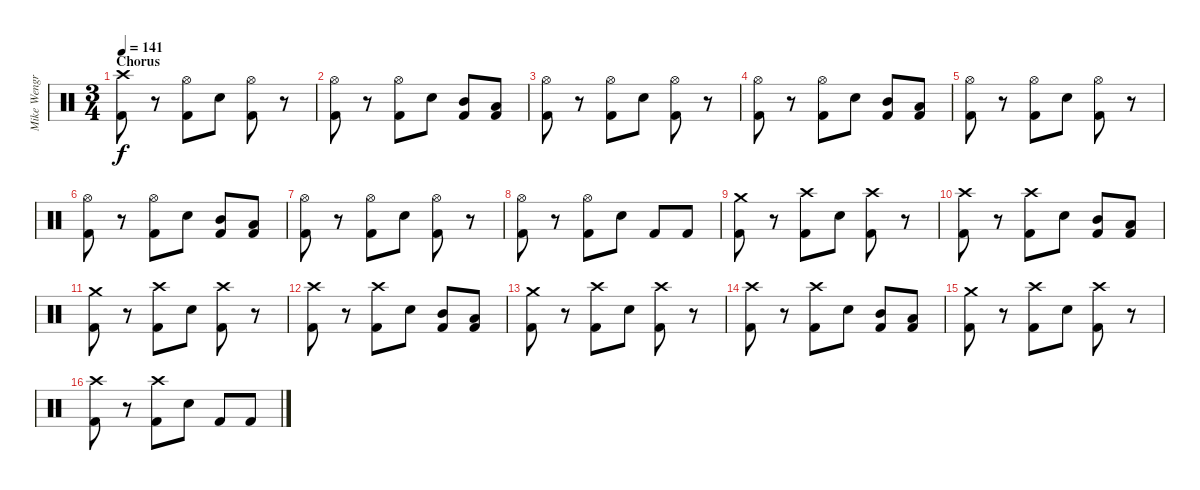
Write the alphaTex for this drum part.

\track ("Mike Wengren (Drums)" "Mike Wengr") {instrument percussion}
\staff {score}
\articulation defaults
\ts (3 4)
\section ("" "Chorus")
\tempo 141
\clef neutral
\ks c
("Crash high (hit)" "Kick (hit) 2").8{dy f} r.8 ("Hi-Hat (open)" "Kick (hit) 2").8 "Electric Snare (hit)".8 ("Hi-Hat (open)" "Kick (hit) 2").8 r.8 |
("Hi-Hat (open)" "Kick (hit) 2").8 r.8 ("Hi-Hat (open)" "Kick (hit) 2").8 "Electric Snare (hit)".8 ("Mid Tom (hit)" "Kick (hit) 2").8 ("Low Tom (hit)" "Kick (hit) 2").8 |
("Hi-Hat (open)" "Kick (hit) 2").8 r.8 ("Hi-Hat (open)" "Kick (hit) 2").8 "Electric Snare (hit)".8 ("Hi-Hat (open)" "Kick (hit) 2").8 r.8 |
("Hi-Hat (open)" "Kick (hit) 2").8 r.8 ("Hi-Hat (open)" "Kick (hit) 2").8 "Electric Snare (hit)".8 ("Mid Tom (hit)" "Kick (hit) 2").8 ("Low Tom (hit)" "Kick (hit) 2").8 |
("Hi-Hat (open)" "Kick (hit) 2").8 r.8 ("Hi-Hat (open)" "Kick (hit) 2").8 "Electric Snare (hit)".8 ("Hi-Hat (open)" "Kick (hit) 2").8 r.8 |
("Hi-Hat (open)" "Kick (hit) 2").8 r.8 ("Hi-Hat (open)" "Kick (hit) 2").8 "Electric Snare (hit)".8 ("Mid Tom (hit)" "Kick (hit) 2").8 ("Low Tom (hit)" "Kick (hit) 2").8 |
("Hi-Hat (open)" "Kick (hit) 2").8 r.8 ("Hi-Hat (open)" "Kick (hit) 2").8 "Electric Snare (hit)".8 ("Hi-Hat (open)" "Kick (hit) 2").8 r.8 |
("Hi-Hat (open)" "Kick (hit) 2").8 r.8 ("Hi-Hat (open)" "Kick (hit) 2").8 "Electric Snare (hit)".8 "Kick (hit) 2".8 "Kick (hit) 2".8 |
("Crash medium (hit)" "Kick (hit) 2").8 r.8 ("Crash high (hit)" "Kick (hit) 2").8 "Electric Snare (hit)".8 ("Crash high (hit)" "Kick (hit) 2").8 r.8 |
("Crash high (hit)" "Kick (hit) 2").8 r.8 ("Crash high (hit)" "Kick (hit) 2").8 "Electric Snare (hit)".8 ("Mid Tom (hit)" "Kick (hit) 2").8 ("Low Tom (hit)" "Kick (hit) 2").8 |
("Crash medium (hit)" "Kick (hit) 2").8 r.8 ("Crash high (hit)" "Kick (hit) 2").8 "Electric Snare (hit)".8 ("Crash high (hit)" "Kick (hit) 2").8 r.8 |
("Crash high (hit)" "Kick (hit) 2").8 r.8 ("Crash high (hit)" "Kick (hit) 2").8 "Electric Snare (hit)".8 ("Mid Tom (hit)" "Kick (hit) 2").8 ("Low Tom (hit)" "Kick (hit) 2").8 |
("Crash medium (hit)" "Kick (hit) 2").8 r.8 ("Crash high (hit)" "Kick (hit) 2").8 "Electric Snare (hit)".8 ("Crash high (hit)" "Kick (hit) 2").8 r.8 |
("Crash high (hit)" "Kick (hit) 2").8 r.8 ("Crash high (hit)" "Kick (hit) 2").8 "Electric Snare (hit)".8 ("Mid Tom (hit)" "Kick (hit) 2").8 ("Low Tom (hit)" "Kick (hit) 2").8 |
("Crash medium (hit)" "Kick (hit) 2").8 r.8 ("Crash high (hit)" "Kick (hit) 2").8 "Electric Snare (hit)".8 ("Crash high (hit)" "Kick (hit) 2").8 r.8 |
("Crash high (hit)" "Kick (hit) 2").8 r.8 ("Crash high (hit)" "Kick (hit) 2").8 "Electric Snare (hit)".8 "Kick (hit) 2".8 "Kick (hit) 2".8
